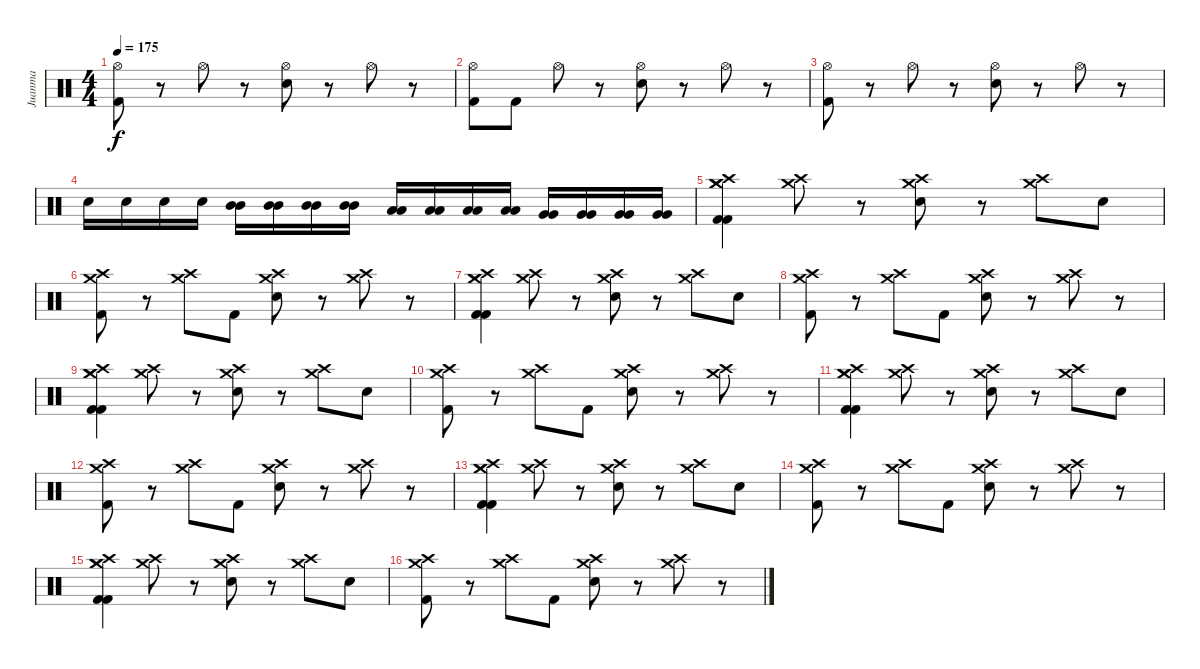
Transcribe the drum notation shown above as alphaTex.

\track ("Juanma" "Juanma") {instrument percussion}
\staff {score}
\articulation defaults
\ts (4 4)
\tempo 175
\clef neutral
\ks c
("Hi-Hat (open)" "Kick (hit) 2").8{dy f} r.8 "Hi-Hat (open)".8 r.8 ("Hi-Hat (open)" "Electric Snare (hit)").8 r.8 "Hi-Hat (open)".8 r.8 |
("Hi-Hat (open)" "Kick (hit) 2").8 "Kick (hit) 2".8 "Hi-Hat (open)".8 r.8 ("Hi-Hat (open)" "Electric Snare (hit)").8 r.8 "Hi-Hat (open)".8 r.8 |
("Hi-Hat (open)" "Kick (hit) 2").8 r.8 "Hi-Hat (open)".8 r.8 ("Hi-Hat (open)" "Electric Snare (hit)").8 r.8 "Hi-Hat (open)".8 r.8 |
"Electric Snare (hit)".16{balance 5} "Electric Snare (hit)".16 "Electric Snare (hit)".16 "Electric Snare (hit)".16 ("Mid Tom (hit)" "Mid Tom (hit)").16{balance 6} ("Mid Tom (hit)" "Mid Tom (hit)").16 ("Mid Tom (hit)" "Mid Tom (hit)").16 ("Mid Tom (hit)" "Mid Tom (hit)").16 ("Low Tom (hit)" "Low Tom (hit)").16{balance 10} ("Low Tom (hit)" "Low Tom (hit)").16 ("Low Tom (hit)" "Low Tom (hit)").16 ("Low Tom (hit)" "Low Tom (hit)").16 ("Very Low Tom (hit)" "Very Low Tom (hit)").16{balance 11} ("Very Low Tom (hit)" "Very Low Tom (hit)").16 ("Very Low Tom (hit)" "Very Low Tom (hit)").16 ("Very Low Tom (hit)" "Very Low Tom (hit)").16 |
("Crash medium (hit)" "Crash medium (hit)" "Crash high (hit)" "Kick (hit) 2" "Kick (hit) 2").4{balance 8} ("Crash high (hit)" "Crash medium (hit)").8 r.8 ("Crash high (hit)" "Crash medium (hit)" "Electric Snare (hit)").8 r.8 ("Crash high (hit)" "Crash medium (hit)").8 "Electric Snare (hit)".8 |
("Crash high (hit)" "Crash medium (hit)" "Kick (hit) 2").8 r.8 ("Crash high (hit)" "Crash medium (hit)").8 "Kick (hit) 2".8 ("Crash high (hit)" "Crash medium (hit)" "Electric Snare (hit)").8 r.8 ("Crash high (hit)" "Crash medium (hit)").8 r.8 |
("Crash medium (hit)" "Crash medium (hit)" "Crash high (hit)" "Kick (hit) 2" "Kick (hit) 2").4 ("Crash high (hit)" "Crash medium (hit)").8 r.8 ("Crash high (hit)" "Crash medium (hit)" "Electric Snare (hit)").8 r.8 ("Crash high (hit)" "Crash medium (hit)").8 "Electric Snare (hit)".8 |
("Crash high (hit)" "Crash medium (hit)" "Kick (hit) 2").8 r.8 ("Crash high (hit)" "Crash medium (hit)").8 "Kick (hit) 2".8 ("Crash high (hit)" "Crash medium (hit)" "Electric Snare (hit)").8 r.8 ("Crash high (hit)" "Crash medium (hit)").8 r.8 |
("Crash medium (hit)" "Crash medium (hit)" "Crash high (hit)" "Kick (hit) 2" "Kick (hit) 2").4 ("Crash high (hit)" "Crash medium (hit)").8 r.8 ("Crash high (hit)" "Crash medium (hit)" "Electric Snare (hit)").8 r.8 ("Crash high (hit)" "Crash medium (hit)").8 "Electric Snare (hit)".8 |
("Crash high (hit)" "Crash medium (hit)" "Kick (hit) 2").8 r.8 ("Crash high (hit)" "Crash medium (hit)").8 "Kick (hit) 2".8 ("Crash high (hit)" "Crash medium (hit)" "Electric Snare (hit)").8 r.8 ("Crash high (hit)" "Crash medium (hit)").8 r.8 |
("Crash medium (hit)" "Crash medium (hit)" "Crash high (hit)" "Kick (hit) 2" "Kick (hit) 2").4 ("Crash high (hit)" "Crash medium (hit)").8 r.8 ("Crash high (hit)" "Crash medium (hit)" "Electric Snare (hit)").8 r.8 ("Crash high (hit)" "Crash medium (hit)").8 "Electric Snare (hit)".8 |
("Crash high (hit)" "Crash medium (hit)" "Kick (hit) 2").8 r.8 ("Crash high (hit)" "Crash medium (hit)").8 "Kick (hit) 2".8 ("Crash high (hit)" "Crash medium (hit)" "Electric Snare (hit)").8 r.8 ("Crash high (hit)" "Crash medium (hit)").8 r.8 |
("Crash medium (hit)" "Crash medium (hit)" "Crash high (hit)" "Kick (hit) 2" "Kick (hit) 2").4 ("Crash high (hit)" "Crash medium (hit)").8 r.8 ("Crash high (hit)" "Crash medium (hit)" "Electric Snare (hit)").8 r.8 ("Crash high (hit)" "Crash medium (hit)").8 "Electric Snare (hit)".8 |
("Crash high (hit)" "Crash medium (hit)" "Kick (hit) 2").8 r.8 ("Crash high (hit)" "Crash medium (hit)").8 "Kick (hit) 2".8 ("Crash high (hit)" "Crash medium (hit)" "Electric Snare (hit)").8 r.8 ("Crash high (hit)" "Crash medium (hit)").8 r.8 |
("Crash medium (hit)" "Crash medium (hit)" "Crash high (hit)" "Kick (hit) 2" "Kick (hit) 2").4 ("Crash high (hit)" "Crash medium (hit)").8 r.8 ("Crash high (hit)" "Crash medium (hit)" "Electric Snare (hit)").8 r.8 ("Crash high (hit)" "Crash medium (hit)").8 "Electric Snare (hit)".8 |
("Crash high (hit)" "Crash medium (hit)" "Kick (hit) 2").8 r.8 ("Crash high (hit)" "Crash medium (hit)").8 "Kick (hit) 2".8 ("Crash high (hit)" "Crash medium (hit)" "Electric Snare (hit)").8 r.8 ("Crash high (hit)" "Crash medium (hit)").8 r.8
